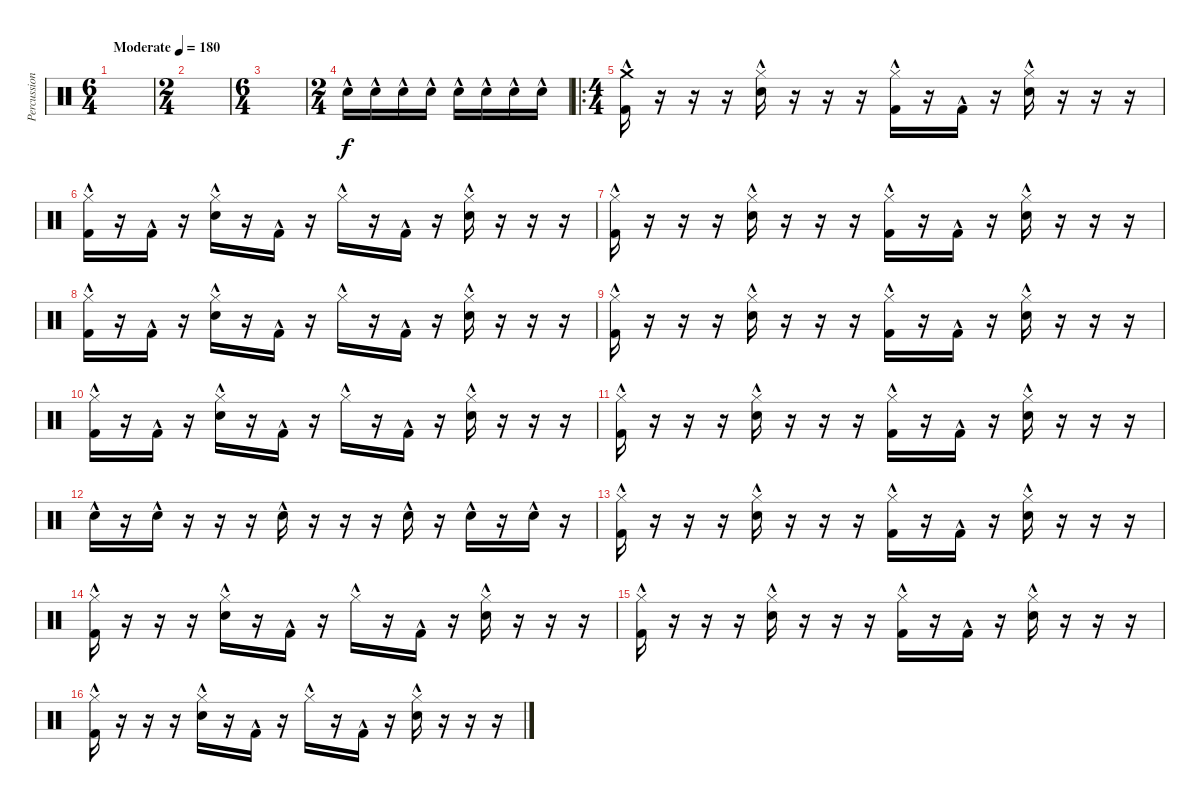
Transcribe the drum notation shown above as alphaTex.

\track ("Percussion" "Percussion") {instrument percussion bank 2}
\staff {score}
\articulation defaults
\ts (6 4)
\tempo (180 "Moderate")
\clef neutral
\ks c
|
\ts (2 4)
|
\ts (6 4)
|
\ts (2 4)
"Snare (hit) 2"{hac}.16 "Snare (hit) 2"{hac}.16 "Snare (hit) 2"{hac}.16 "Snare (hit) 2"{hac}.16 "Snare (hit) 2"{hac}.16 "Snare (hit) 2"{hac}.16 "Snare (hit) 2"{hac}.16 "Snare (hit) 2"{hac}.16 |
\ro
\ts (4 4)
("Crash medium (hit)"{hac} "Kick (hit) 2"{hac}).16 r.16 r.16 r.16 ("Hi-Hat (closed)"{hac} "Snare (hit) 2"{hac}).16 r.16 r.16 r.16 ("Hi-Hat (closed)"{hac} "Kick (hit) 2"{hac}).16 r.16 "Kick (hit) 2"{hac}.16 r.16 ("Hi-Hat (closed)"{hac} "Snare (hit) 2"{hac}).16 r.16 r.16 r.16 |
("Hi-Hat (closed)"{hac} "Kick (hit) 2"{hac}).16 r.16 "Kick (hit) 2"{hac}.16 r.16 ("Hi-Hat (closed)"{hac} "Snare (hit) 2"{hac}).16 r.16 "Kick (hit) 2"{hac}.16 r.16 "Hi-Hat (closed)"{hac}.16 r.16 "Kick (hit) 2"{hac}.16 r.16 ("Hi-Hat (closed)"{hac} "Snare (hit) 2"{hac}).16 r.16 r.16 r.16 |
("Hi-Hat (closed)"{hac} "Kick (hit) 2"{hac}).16 r.16 r.16 r.16 ("Hi-Hat (closed)"{hac} "Snare (hit) 2"{hac}).16 r.16 r.16 r.16 ("Hi-Hat (closed)"{hac} "Kick (hit) 2"{hac}).16 r.16 "Kick (hit) 2"{hac}.16 r.16 ("Hi-Hat (closed)"{hac} "Snare (hit) 2"{hac}).16 r.16 r.16 r.16 |
("Hi-Hat (closed)"{hac} "Kick (hit) 2"{hac}).16 r.16 "Kick (hit) 2"{hac}.16 r.16 ("Hi-Hat (closed)"{hac} "Snare (hit) 2"{hac}).16 r.16 "Kick (hit) 2"{hac}.16 r.16 "Hi-Hat (closed)"{hac}.16 r.16 "Kick (hit) 2"{hac}.16 r.16 ("Hi-Hat (closed)"{hac} "Snare (hit) 2"{hac}).16 r.16 r.16 r.16 |
("Hi-Hat (closed)"{hac} "Kick (hit) 2"{hac}).16 r.16 r.16 r.16 ("Hi-Hat (closed)"{hac} "Snare (hit) 2"{hac}).16 r.16 r.16 r.16 ("Hi-Hat (closed)"{hac} "Kick (hit) 2"{hac}).16 r.16 "Kick (hit) 2"{hac}.16 r.16 ("Hi-Hat (closed)"{hac} "Snare (hit) 2"{hac}).16 r.16 r.16 r.16 |
("Hi-Hat (closed)"{hac} "Kick (hit) 2"{hac}).16 r.16 "Kick (hit) 2"{hac}.16 r.16 ("Hi-Hat (closed)"{hac} "Snare (hit) 2"{hac}).16 r.16 "Kick (hit) 2"{hac}.16 r.16 "Hi-Hat (closed)"{hac}.16 r.16 "Kick (hit) 2"{hac}.16 r.16 ("Hi-Hat (closed)"{hac} "Snare (hit) 2"{hac}).16 r.16 r.16 r.16 |
("Hi-Hat (closed)"{hac} "Kick (hit) 2"{hac}).16 r.16 r.16 r.16 ("Hi-Hat (closed)"{hac} "Snare (hit) 2"{hac}).16 r.16 r.16 r.16 ("Hi-Hat (closed)"{hac} "Kick (hit) 2"{hac}).16 r.16 "Kick (hit) 2"{hac}.16 r.16 ("Hi-Hat (closed)"{hac} "Snare (hit) 2"{hac}).16 r.16 r.16 r.16 |
"Snare (hit) 2"{hac}.16 r.16 "Snare (hit) 2"{hac}.16 r.16 r.16 r.16 "Snare (hit) 2"{hac}.16 r.16 r.16 r.16 "Snare (hit) 2"{hac}.16 r.16 "Snare (hit) 2"{hac}.16 r.16 "Snare (hit) 2"{hac}.16 r.16 |
("Hi-Hat (closed)"{hac} "Kick (hit) 2"{hac}).16 r.16 r.16 r.16 ("Hi-Hat (closed)"{hac} "Snare (hit) 2"{hac}).16 r.16 r.16 r.16 ("Hi-Hat (closed)"{hac} "Kick (hit) 2"{hac}).16 r.16 "Kick (hit) 2"{hac}.16 r.16 ("Hi-Hat (closed)"{hac} "Snare (hit) 2"{hac}).16 r.16 r.16 r.16 |
("Hi-Hat (closed)"{hac} "Kick (hit) 2"{hac}).16 r.16 r.16 r.16 ("Hi-Hat (closed)"{hac} "Snare (hit) 2"{hac}).16 r.16 "Kick (hit) 2"{hac}.16 r.16 "Hi-Hat (closed)"{hac}.16 r.16 "Kick (hit) 2"{hac}.16 r.16 ("Hi-Hat (closed)"{hac} "Snare (hit) 2"{hac}).16 r.16 r.16 r.16 |
("Hi-Hat (closed)"{hac} "Kick (hit) 2"{hac}).16 r.16 r.16 r.16 ("Hi-Hat (closed)"{hac} "Snare (hit) 2"{hac}).16 r.16 r.16 r.16 ("Hi-Hat (closed)"{hac} "Kick (hit) 2"{hac}).16 r.16 "Kick (hit) 2"{hac}.16 r.16 ("Hi-Hat (closed)"{hac} "Snare (hit) 2"{hac}).16 r.16 r.16 r.16 |
("Hi-Hat (closed)"{hac} "Kick (hit) 2"{hac}).16 r.16 r.16 r.16 ("Hi-Hat (closed)"{hac} "Snare (hit) 2"{hac}).16 r.16 "Kick (hit) 2"{hac}.16 r.16 "Hi-Hat (closed)"{hac}.16 r.16 "Kick (hit) 2"{hac}.16 r.16 ("Hi-Hat (closed)"{hac} "Snare (hit) 2"{hac}).16 r.16 r.16 r.16
